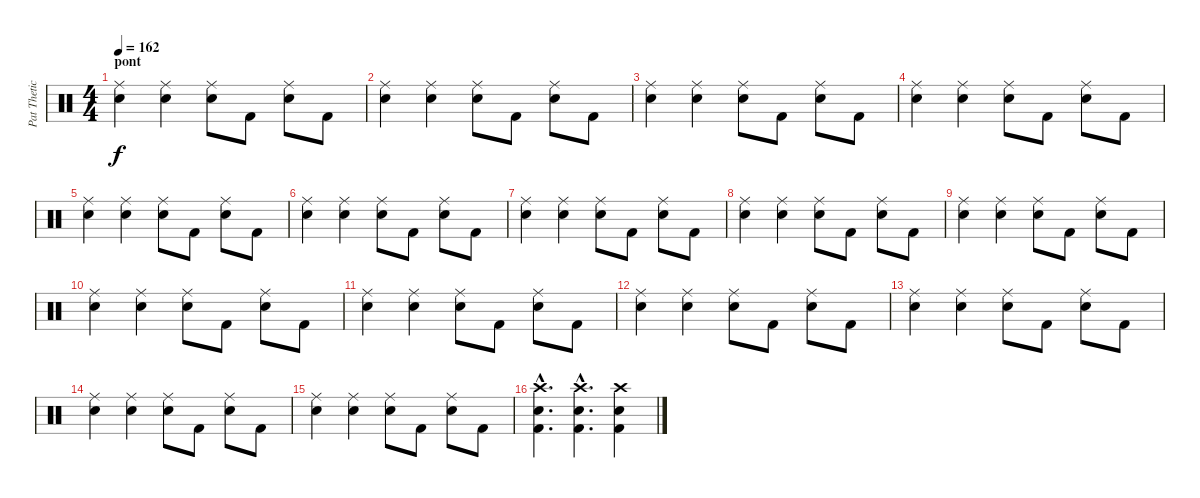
\track ("Pat Thetic" "Pat Thetic") {instrument percussion}
\staff {score}
\articulation defaults
\ts (4 4)
\section ("" "pont")
\tempo 162
\clef neutral
\ks c
("Snare (hit) 2" "Ride (middle)").4{dy f} ("Snare (hit) 2" "Ride (middle)").4 ("Snare (hit) 2" "Ride (middle)").8 "Kick (hit) 2".8 ("Snare (hit) 2" "Ride (middle)").8 "Kick (hit) 2".8 |
("Snare (hit) 2" "Ride (middle)").4 ("Snare (hit) 2" "Ride (middle)").4 ("Snare (hit) 2" "Ride (middle)").8 "Kick (hit) 2".8 ("Snare (hit) 2" "Ride (middle)").8 "Kick (hit) 2".8 |
("Snare (hit) 2" "Ride (middle)").4 ("Snare (hit) 2" "Ride (middle)").4 ("Snare (hit) 2" "Ride (middle)").8 "Kick (hit) 2".8 ("Snare (hit) 2" "Ride (middle)").8 "Kick (hit) 2".8 |
("Snare (hit) 2" "Ride (middle)").4 ("Snare (hit) 2" "Ride (middle)").4 ("Snare (hit) 2" "Ride (middle)").8 "Kick (hit) 2".8 ("Snare (hit) 2" "Ride (middle)").8 "Kick (hit) 2".8 |
("Snare (hit) 2" "Ride (middle)").4 ("Snare (hit) 2" "Ride (middle)").4 ("Snare (hit) 2" "Ride (middle)").8 "Kick (hit) 2".8 ("Snare (hit) 2" "Ride (middle)").8 "Kick (hit) 2".8 |
("Snare (hit) 2" "Ride (middle)").4 ("Snare (hit) 2" "Ride (middle)").4 ("Snare (hit) 2" "Ride (middle)").8 "Kick (hit) 2".8 ("Snare (hit) 2" "Ride (middle)").8 "Kick (hit) 2".8 |
("Snare (hit) 2" "Ride (middle)").4 ("Snare (hit) 2" "Ride (middle)").4 ("Snare (hit) 2" "Ride (middle)").8 "Kick (hit) 2".8 ("Snare (hit) 2" "Ride (middle)").8 "Kick (hit) 2".8 |
("Snare (hit) 2" "Ride (middle)").4 ("Snare (hit) 2" "Ride (middle)").4 ("Snare (hit) 2" "Ride (middle)").8 "Kick (hit) 2".8 ("Snare (hit) 2" "Ride (middle)").8 "Kick (hit) 2".8 |
("Snare (hit) 2" "Ride (middle)").4 ("Snare (hit) 2" "Ride (middle)").4 ("Snare (hit) 2" "Ride (middle)").8 "Kick (hit) 2".8 ("Snare (hit) 2" "Ride (middle)").8 "Kick (hit) 2".8 |
("Snare (hit) 2" "Ride (middle)").4 ("Snare (hit) 2" "Ride (middle)").4 ("Snare (hit) 2" "Ride (middle)").8 "Kick (hit) 2".8 ("Snare (hit) 2" "Ride (middle)").8 "Kick (hit) 2".8 |
("Snare (hit) 2" "Ride (middle)").4 ("Snare (hit) 2" "Ride (middle)").4 ("Snare (hit) 2" "Ride (middle)").8 "Kick (hit) 2".8 ("Snare (hit) 2" "Ride (middle)").8 "Kick (hit) 2".8 |
("Snare (hit) 2" "Ride (middle)").4 ("Snare (hit) 2" "Ride (middle)").4 ("Snare (hit) 2" "Ride (middle)").8 "Kick (hit) 2".8 ("Snare (hit) 2" "Ride (middle)").8 "Kick (hit) 2".8 |
("Snare (hit) 2" "Ride (middle)").4 ("Snare (hit) 2" "Ride (middle)").4 ("Snare (hit) 2" "Ride (middle)").8 "Kick (hit) 2".8 ("Snare (hit) 2" "Ride (middle)").8 "Kick (hit) 2".8 |
("Snare (hit) 2" "Ride (middle)").4 ("Snare (hit) 2" "Ride (middle)").4 ("Snare (hit) 2" "Ride (middle)").8 "Kick (hit) 2".8 ("Snare (hit) 2" "Ride (middle)").8 "Kick (hit) 2".8 |
("Snare (hit) 2" "Ride (middle)").4 ("Snare (hit) 2" "Ride (middle)").4 ("Snare (hit) 2" "Ride (middle)").8 "Kick (hit) 2".8 ("Snare (hit) 2" "Ride (middle)").8 "Kick (hit) 2".8 |
("Crash high (hit)"{hac} "Kick (hit) 2"{hac} "Snare (hit) 2"{hac}).4{d} ("Crash high (hit)"{hac} "Kick (hit) 2"{hac} "Snare (hit) 2"{hac}).4{d} ("Crash high (hit)" "Kick (hit) 2" "Snare (hit) 2").4
